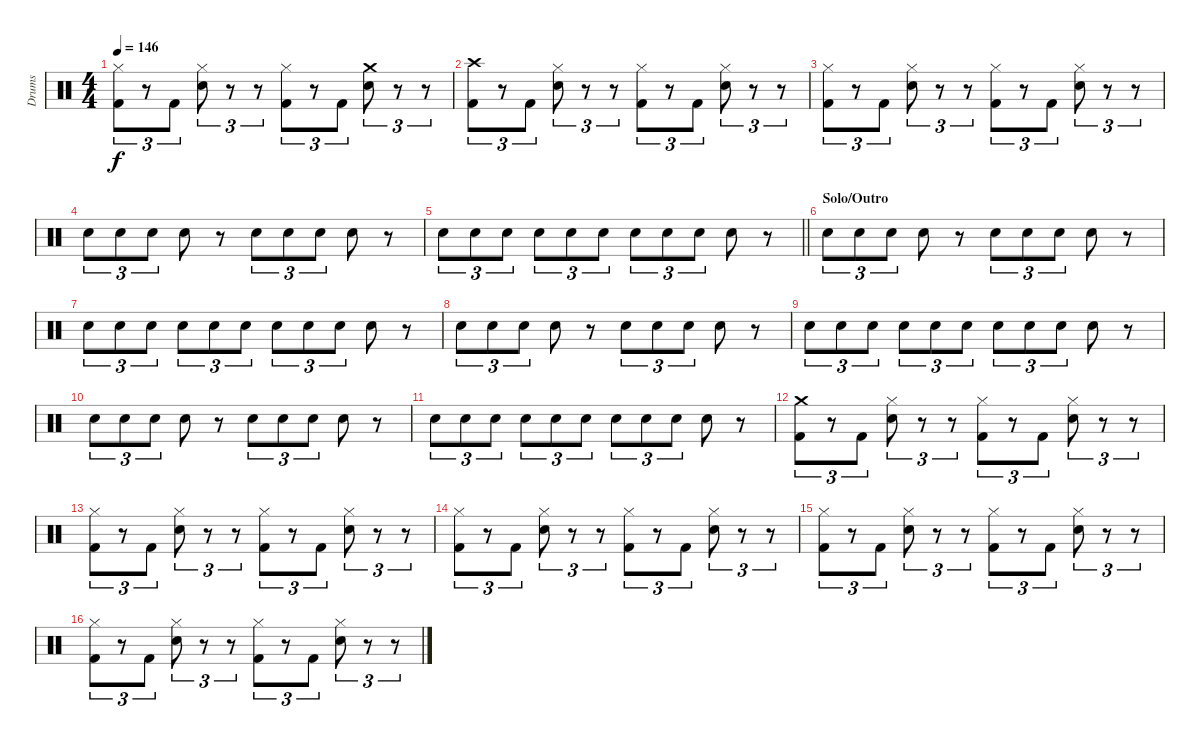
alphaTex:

\track ("Drums" "Drums") {instrument percussion}
\staff {score}
\articulation defaults
\ts (4 4)
\tempo 146
\clef neutral
\ks c
("Hi-Hat (closed)" "Kick (hit) 2").8{tu (3 2) dy f} r.8{tu (3 2)} "Kick (hit) 2".8{tu (3 2)} ("Hi-Hat (closed)" "Snare (hit) 2").8{tu (3 2)} r.8{tu (3 2)} r.8{tu (3 2)} ("Hi-Hat (closed)" "Kick (hit) 2").8{tu (3 2)} r.8{tu (3 2)} "Kick (hit) 2".8{tu (3 2)} ("Crash medium (hit)" "Snare (hit) 2").8{tu (3 2)} r.8{tu (3 2)} r.8{tu (3 2)} |
("Crash high (hit)" "Kick (hit) 2").8{tu (3 2)} r.8{tu (3 2)} "Kick (hit) 2".8{tu (3 2)} ("Hi-Hat (closed)" "Snare (hit) 2").8{tu (3 2)} r.8{tu (3 2)} r.8{tu (3 2)} ("Hi-Hat (closed)" "Kick (hit) 2").8{tu (3 2)} r.8{tu (3 2)} "Kick (hit) 2".8{tu (3 2)} ("Hi-Hat (closed)" "Snare (hit) 2").8{tu (3 2)} r.8{tu (3 2)} r.8{tu (3 2)} |
("Hi-Hat (closed)" "Kick (hit) 2").8{tu (3 2)} r.8{tu (3 2)} "Kick (hit) 2".8{tu (3 2)} ("Hi-Hat (closed)" "Snare (hit) 2").8{tu (3 2)} r.8{tu (3 2)} r.8{tu (3 2)} ("Hi-Hat (closed)" "Kick (hit) 2").8{tu (3 2)} r.8{tu (3 2)} "Kick (hit) 2".8{tu (3 2)} ("Hi-Hat (closed)" "Snare (hit) 2").8{tu (3 2)} r.8{tu (3 2)} r.8{tu (3 2)} |
"Snare (hit) 2".8{tu (3 2)} "Snare (hit) 2".8{tu (3 2)} "Snare (hit) 2".8{tu (3 2)} "Snare (hit) 2".8 r.8 "Snare (hit) 2".8{tu (3 2)} "Snare (hit) 2".8{tu (3 2)} "Snare (hit) 2".8{tu (3 2)} "Snare (hit) 2".8 r.8 |
\barLineRight lightlight "Snare (hit) 2".8{tu (3 2)} "Snare (hit) 2".8{tu (3 2)} "Snare (hit) 2".8{tu (3 2)} "Snare (hit) 2".8{tu (3 2)} "Snare (hit) 2".8{tu (3 2)} "Snare (hit) 2".8{tu (3 2)} "Snare (hit) 2".8{tu (3 2)} "Snare (hit) 2".8{tu (3 2)} "Snare (hit) 2".8{tu (3 2)} "Snare (hit) 2".8
r.8 |
\section ("" "Solo/Outro")
"Snare (hit) 2".8{tu (3 2)} "Snare (hit) 2".8{tu (3 2)} "Snare (hit) 2".8{tu (3 2)} "Snare (hit) 2".8 r.8 "Snare (hit) 2".8{tu (3 2)} "Snare (hit) 2".8{tu (3 2)} "Snare (hit) 2".8{tu (3 2)} "Snare (hit) 2".8 r.8 |
"Snare (hit) 2".8{tu (3 2)} "Snare (hit) 2".8{tu (3 2)} "Snare (hit) 2".8{tu (3 2)} "Snare (hit) 2".8{tu (3 2)} "Snare (hit) 2".8{tu (3 2)} "Snare (hit) 2".8{tu (3 2)} "Snare (hit) 2".8{tu (3 2)} "Snare (hit) 2".8{tu (3 2)} "Snare (hit) 2".8{tu (3 2)} "Snare (hit) 2".8 r.8 |
"Snare (hit) 2".8{tu (3 2)} "Snare (hit) 2".8{tu (3 2)} "Snare (hit) 2".8{tu (3 2)} "Snare (hit) 2".8 r.8 "Snare (hit) 2".8{tu (3 2)} "Snare (hit) 2".8{tu (3 2)} "Snare (hit) 2".8{tu (3 2)} "Snare (hit) 2".8 r.8 |
"Snare (hit) 2".8{tu (3 2)} "Snare (hit) 2".8{tu (3 2)} "Snare (hit) 2".8{tu (3 2)} "Snare (hit) 2".8{tu (3 2)} "Snare (hit) 2".8{tu (3 2)} "Snare (hit) 2".8{tu (3 2)} "Snare (hit) 2".8{tu (3 2)} "Snare (hit) 2".8{tu (3 2)} "Snare (hit) 2".8{tu (3 2)} "Snare (hit) 2".8 r.8 |
"Snare (hit) 2".8{tu (3 2)} "Snare (hit) 2".8{tu (3 2)} "Snare (hit) 2".8{tu (3 2)} "Snare (hit) 2".8 r.8 "Snare (hit) 2".8{tu (3 2)} "Snare (hit) 2".8{tu (3 2)} "Snare (hit) 2".8{tu (3 2)} "Snare (hit) 2".8 r.8 |
"Snare (hit) 2".8{tu (3 2)} "Snare (hit) 2".8{tu (3 2)} "Snare (hit) 2".8{tu (3 2)} "Snare (hit) 2".8{tu (3 2)} "Snare (hit) 2".8{tu (3 2)} "Snare (hit) 2".8{tu (3 2)} "Snare (hit) 2".8{tu (3 2)} "Snare (hit) 2".8{tu (3 2)} "Snare (hit) 2".8{tu (3 2)} "Snare (hit) 2".8 r.8 |
("Crash medium (hit)" "Kick (hit) 2").8{tu (3 2)} r.8{tu (3 2)} "Kick (hit) 2".8{tu (3 2)} ("Hi-Hat (closed)" "Snare (hit) 2").8{tu (3 2)} r.8{tu (3 2)} r.8{tu (3 2)} ("Hi-Hat (closed)" "Kick (hit) 2").8{tu (3 2)} r.8{tu (3 2)} "Kick (hit) 2".8{tu (3 2)} ("Hi-Hat (closed)" "Snare (hit) 2").8{tu (3 2)} r.8{tu (3 2)} r.8{tu (3 2)} |
("Hi-Hat (closed)" "Kick (hit) 2").8{tu (3 2)} r.8{tu (3 2)} "Kick (hit) 2".8{tu (3 2)} ("Hi-Hat (closed)" "Snare (hit) 2").8{tu (3 2)} r.8{tu (3 2)} r.8{tu (3 2)} ("Hi-Hat (closed)" "Kick (hit) 2").8{tu (3 2)} r.8{tu (3 2)} "Kick (hit) 2".8{tu (3 2)} ("Hi-Hat (closed)" "Snare (hit) 2").8{tu (3 2)} r.8{tu (3 2)} r.8{tu (3 2)} |
("Hi-Hat (closed)" "Kick (hit) 2").8{tu (3 2)} r.8{tu (3 2)} "Kick (hit) 2".8{tu (3 2)} ("Hi-Hat (closed)" "Snare (hit) 2").8{tu (3 2)} r.8{tu (3 2)} r.8{tu (3 2)} ("Hi-Hat (closed)" "Kick (hit) 2").8{tu (3 2)} r.8{tu (3 2)} "Kick (hit) 2".8{tu (3 2)} ("Hi-Hat (closed)" "Snare (hit) 2").8{tu (3 2)} r.8{tu (3 2)} r.8{tu (3 2)} |
("Hi-Hat (closed)" "Kick (hit) 2").8{tu (3 2)} r.8{tu (3 2)} "Kick (hit) 2".8{tu (3 2)} ("Hi-Hat (closed)" "Snare (hit) 2").8{tu (3 2)} r.8{tu (3 2)} r.8{tu (3 2)} ("Hi-Hat (closed)" "Kick (hit) 2").8{tu (3 2)} r.8{tu (3 2)} "Kick (hit) 2".8{tu (3 2)} ("Hi-Hat (closed)" "Snare (hit) 2").8{tu (3 2)} r.8{tu (3 2)} r.8{tu (3 2)} |
("Hi-Hat (closed)" "Kick (hit) 2").8{tu (3 2)} r.8{tu (3 2)} "Kick (hit) 2".8{tu (3 2)} ("Hi-Hat (closed)" "Snare (hit) 2").8{tu (3 2)} r.8{tu (3 2)} r.8{tu (3 2)} ("Hi-Hat (closed)" "Kick (hit) 2").8{tu (3 2)} r.8{tu (3 2)} "Kick (hit) 2".8{tu (3 2)} ("Hi-Hat (closed)" "Snare (hit) 2").8{tu (3 2)} r.8{tu (3 2)} r.8{tu (3 2)}
